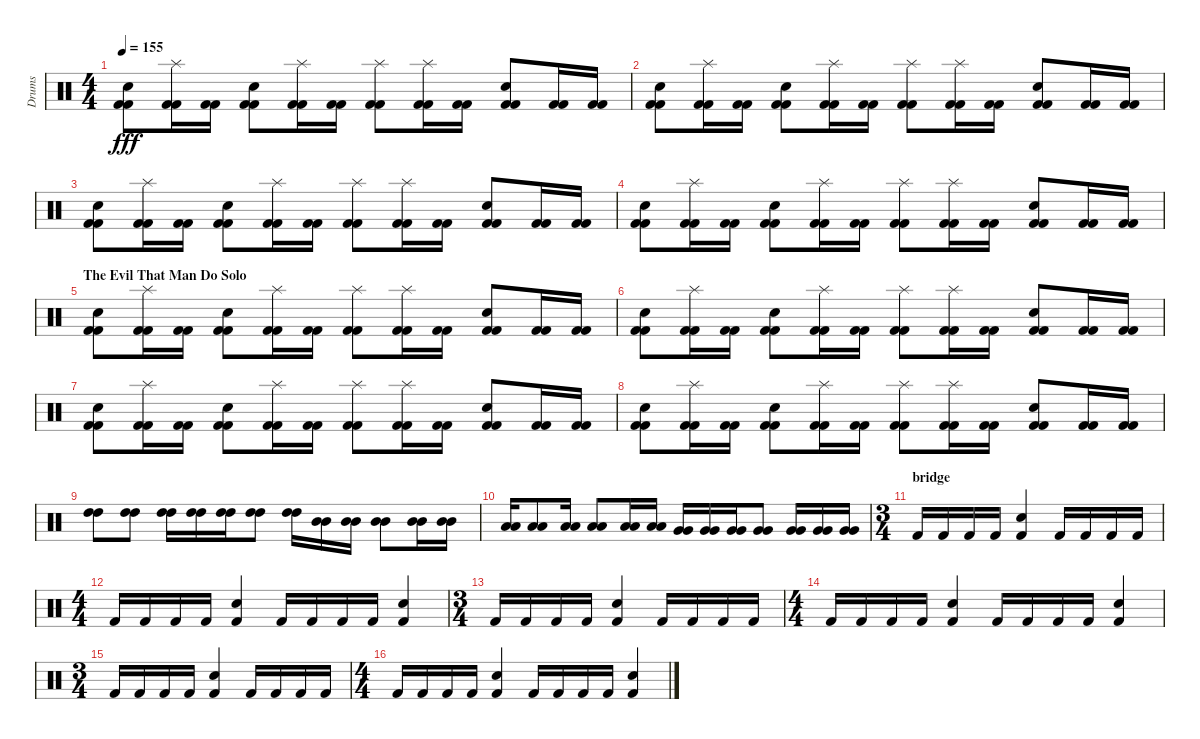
\track ("Drums" "Drums") {instrument percussion}
\staff {score}
\articulation defaults
\ts (4 4)
\tempo 155
\clef neutral
\ks c
("Snare (hit) 2" "Kick (hit) 2" "Kick (hit) 2").8{dy fff} ("Splash (hit)" "Kick (hit) 2" "Kick (hit) 2").16 ("Kick (hit) 2" "Kick (hit) 2").16 ("Snare (hit) 2" "Kick (hit) 2" "Kick (hit) 2").8 ("Splash (hit)" "Kick (hit) 2" "Kick (hit) 2").16 ("Kick (hit) 2" "Kick (hit) 2").16 ("Splash (hit)" "Kick (hit) 2" "Kick (hit) 2").8 ("Splash (hit)" "Kick (hit) 2" "Kick (hit) 2").16 ("Kick (hit) 2" "Kick (hit) 2").16 ("Snare (hit) 2" "Kick (hit) 2" "Kick (hit) 2").8 ("Kick (hit) 2" "Kick (hit) 2").16 ("Kick (hit) 2" "Kick (hit) 2").16 |
("Snare (hit) 2" "Kick (hit) 2" "Kick (hit) 2").8 ("Splash (hit)" "Kick (hit) 2" "Kick (hit) 2").16 ("Kick (hit) 2" "Kick (hit) 2").16 ("Snare (hit) 2" "Kick (hit) 2" "Kick (hit) 2").8 ("Splash (hit)" "Kick (hit) 2" "Kick (hit) 2").16 ("Kick (hit) 2" "Kick (hit) 2").16 ("Splash (hit)" "Kick (hit) 2" "Kick (hit) 2").8 ("Splash (hit)" "Kick (hit) 2" "Kick (hit) 2").16 ("Kick (hit) 2" "Kick (hit) 2").16 ("Snare (hit) 2" "Kick (hit) 2" "Kick (hit) 2").8 ("Kick (hit) 2" "Kick (hit) 2").16 ("Kick (hit) 2" "Kick (hit) 2").16 |
("Snare (hit) 2" "Kick (hit) 2" "Kick (hit) 2").8 ("Splash (hit)" "Kick (hit) 2" "Kick (hit) 2").16 ("Kick (hit) 2" "Kick (hit) 2").16 ("Snare (hit) 2" "Kick (hit) 2" "Kick (hit) 2").8 ("Splash (hit)" "Kick (hit) 2" "Kick (hit) 2").16 ("Kick (hit) 2" "Kick (hit) 2").16 ("Splash (hit)" "Kick (hit) 2" "Kick (hit) 2").8 ("Splash (hit)" "Kick (hit) 2" "Kick (hit) 2").16 ("Kick (hit) 2" "Kick (hit) 2").16 ("Snare (hit) 2" "Kick (hit) 2" "Kick (hit) 2").8 ("Kick (hit) 2" "Kick (hit) 2").16 ("Kick (hit) 2" "Kick (hit) 2").16 |
("Snare (hit) 2" "Kick (hit) 2" "Kick (hit) 2").8 ("Splash (hit)" "Kick (hit) 2" "Kick (hit) 2").16 ("Kick (hit) 2" "Kick (hit) 2").16 ("Snare (hit) 2" "Kick (hit) 2" "Kick (hit) 2").8 ("Splash (hit)" "Kick (hit) 2" "Kick (hit) 2").16 ("Kick (hit) 2" "Kick (hit) 2").16 ("Splash (hit)" "Kick (hit) 2" "Kick (hit) 2").8 ("Splash (hit)" "Kick (hit) 2" "Kick (hit) 2").16 ("Kick (hit) 2" "Kick (hit) 2").16 ("Snare (hit) 2" "Kick (hit) 2" "Kick (hit) 2").8 ("Kick (hit) 2" "Kick (hit) 2").16 ("Kick (hit) 2" "Kick (hit) 2").16 |
\section ("" "The Evil That Man Do Solo")
("Snare (hit) 2" "Kick (hit) 2" "Kick (hit) 2").8 ("Splash (hit)" "Kick (hit) 2" "Kick (hit) 2").16 ("Kick (hit) 2" "Kick (hit) 2").16 ("Snare (hit) 2" "Kick (hit) 2" "Kick (hit) 2").8 ("Splash (hit)" "Kick (hit) 2" "Kick (hit) 2").16 ("Kick (hit) 2" "Kick (hit) 2").16 ("Splash (hit)" "Kick (hit) 2" "Kick (hit) 2").8 ("Splash (hit)" "Kick (hit) 2" "Kick (hit) 2").16 ("Kick (hit) 2" "Kick (hit) 2").16 ("Snare (hit) 2" "Kick (hit) 2" "Kick (hit) 2").8 ("Kick (hit) 2" "Kick (hit) 2").16 ("Kick (hit) 2" "Kick (hit) 2").16 |
("Snare (hit) 2" "Kick (hit) 2" "Kick (hit) 2").8 ("Splash (hit)" "Kick (hit) 2" "Kick (hit) 2").16 ("Kick (hit) 2" "Kick (hit) 2").16 ("Snare (hit) 2" "Kick (hit) 2" "Kick (hit) 2").8 ("Splash (hit)" "Kick (hit) 2" "Kick (hit) 2").16 ("Kick (hit) 2" "Kick (hit) 2").16 ("Splash (hit)" "Kick (hit) 2" "Kick (hit) 2").8 ("Splash (hit)" "Kick (hit) 2" "Kick (hit) 2").16 ("Kick (hit) 2" "Kick (hit) 2").16 ("Snare (hit) 2" "Kick (hit) 2" "Kick (hit) 2").8 ("Kick (hit) 2" "Kick (hit) 2").16 ("Kick (hit) 2" "Kick (hit) 2").16 |
("Snare (hit) 2" "Kick (hit) 2" "Kick (hit) 2").8 ("Splash (hit)" "Kick (hit) 2" "Kick (hit) 2").16 ("Kick (hit) 2" "Kick (hit) 2").16 ("Snare (hit) 2" "Kick (hit) 2" "Kick (hit) 2").8 ("Splash (hit)" "Kick (hit) 2" "Kick (hit) 2").16 ("Kick (hit) 2" "Kick (hit) 2").16 ("Splash (hit)" "Kick (hit) 2" "Kick (hit) 2").8 ("Splash (hit)" "Kick (hit) 2" "Kick (hit) 2").16 ("Kick (hit) 2" "Kick (hit) 2").16 ("Snare (hit) 2" "Kick (hit) 2" "Kick (hit) 2").8 ("Kick (hit) 2" "Kick (hit) 2").16 ("Kick (hit) 2" "Kick (hit) 2").16 |
("Snare (hit) 2" "Kick (hit) 2" "Kick (hit) 2").8 ("Splash (hit)" "Kick (hit) 2" "Kick (hit) 2").16 ("Kick (hit) 2" "Kick (hit) 2").16 ("Snare (hit) 2" "Kick (hit) 2" "Kick (hit) 2").8 ("Splash (hit)" "Kick (hit) 2" "Kick (hit) 2").16 ("Kick (hit) 2" "Kick (hit) 2").16 ("Splash (hit)" "Kick (hit) 2" "Kick (hit) 2").8 ("Splash (hit)" "Kick (hit) 2" "Kick (hit) 2").16 ("Kick (hit) 2" "Kick (hit) 2").16 ("Snare (hit) 2" "Kick (hit) 2" "Kick (hit) 2").8 ("Kick (hit) 2" "Kick (hit) 2").16 ("Kick (hit) 2" "Kick (hit) 2").16 |
("High Tom (hit)" "High Tom (hit)").8 ("High Tom (hit)" "High Tom (hit)").8 ("High Tom (hit)" "High Tom (hit)").16 ("High Tom (hit)" "High Tom (hit)").16 ("High Tom (hit)" "High Tom (hit)").16 ("High Tom (hit)" "High Tom (hit)").8 ("High Tom (hit)" "High Tom (hit)").16 ("Mid Tom (hit)" "Mid Tom (hit)").16 ("Mid Tom (hit)" "Mid Tom (hit)").16 ("Mid Tom (hit)" "Mid Tom (hit)").8 ("Mid Tom (hit)" "Mid Tom (hit)").16 ("Mid Tom (hit)" "Mid Tom (hit)").16 |
("Low Tom (hit)" "Low Tom (hit)").16 ("Low Tom (hit)" "Low Tom (hit)").8 ("Low Tom (hit)" "Low Tom (hit)").16 ("Low Tom (hit)" "Low Tom (hit)").8 ("Low Tom (hit)" "Low Tom (hit)").16 ("Low Tom (hit)" "Low Tom (hit)").16 ("Very Low Tom (hit)" "Very Low Tom (hit)").16 ("Very Low Tom (hit)" "Very Low Tom (hit)").16 ("Very Low Tom (hit)" "Very Low Tom (hit)").16 ("Very Low Tom (hit)" "Very Low Tom (hit)").8 ("Very Low Tom (hit)" "Very Low Tom (hit)").16 ("Very Low Tom (hit)" "Very Low Tom (hit)").16 ("Very Low Tom (hit)" "Very Low Tom (hit)").16 |
\ts (3 4)
\section ("" "bridge")
"Kick (hit) 2".16 "Kick (hit) 2".16 "Kick (hit) 2".16 "Kick (hit) 2".16 ("Kick (hit) 2" "Snare (hit) 2").4 "Kick (hit) 2".16 "Kick (hit) 2".16 "Kick (hit) 2".16 "Kick (hit) 2".16 |
\ts (4 4)
"Kick (hit) 2".16 "Kick (hit) 2".16 "Kick (hit) 2".16 "Kick (hit) 2".16 ("Snare (hit) 2" "Kick (hit) 2").4 "Kick (hit) 2".16 "Kick (hit) 2".16 "Kick (hit) 2".16 "Kick (hit) 2".16 ("Snare (hit) 2" "Kick (hit) 2").4 |
\ts (3 4)
"Kick (hit) 2".16 "Kick (hit) 2".16 "Kick (hit) 2".16 "Kick (hit) 2".16 ("Kick (hit) 2" "Snare (hit) 2").4 "Kick (hit) 2".16 "Kick (hit) 2".16 "Kick (hit) 2".16 "Kick (hit) 2".16 |
\ts (4 4)
"Kick (hit) 2".16 "Kick (hit) 2".16 "Kick (hit) 2".16 "Kick (hit) 2".16 ("Snare (hit) 2" "Kick (hit) 2").4 "Kick (hit) 2".16 "Kick (hit) 2".16 "Kick (hit) 2".16 "Kick (hit) 2".16 ("Snare (hit) 2" "Kick (hit) 2").4 |
\ts (3 4)
"Kick (hit) 2".16 "Kick (hit) 2".16 "Kick (hit) 2".16 "Kick (hit) 2".16 ("Kick (hit) 2" "Snare (hit) 2").4 "Kick (hit) 2".16 "Kick (hit) 2".16 "Kick (hit) 2".16 "Kick (hit) 2".16 |
\ts (4 4)
"Kick (hit) 2".16 "Kick (hit) 2".16 "Kick (hit) 2".16 "Kick (hit) 2".16 ("Snare (hit) 2" "Kick (hit) 2").4 "Kick (hit) 2".16 "Kick (hit) 2".16 "Kick (hit) 2".16 "Kick (hit) 2".16 ("Snare (hit) 2" "Kick (hit) 2").4
